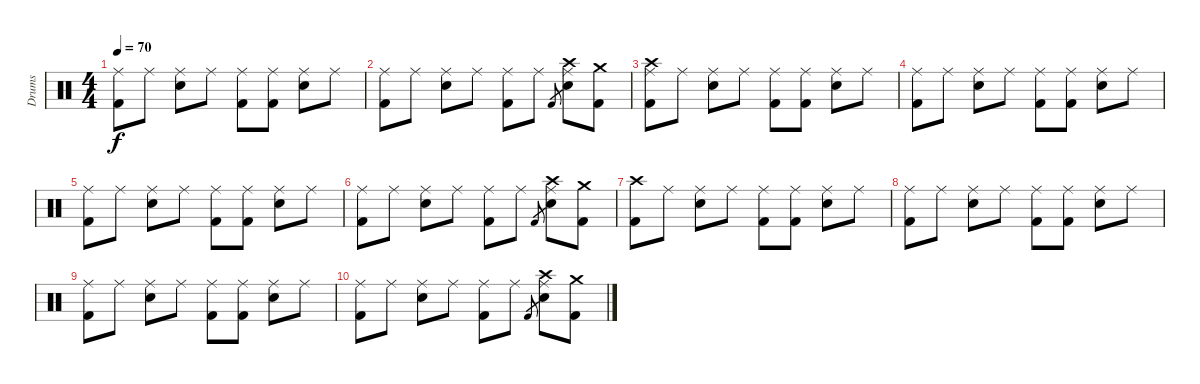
\track ("Drums" "Drums") {instrument percussion}
\staff {score}
\articulation defaults
\ts (4 4)
\tempo 70
\clef neutral
\ks c
("Ride (middle)" "Kick (hit) 2").8{dy f} "Ride (middle)".8 ("Ride (middle)" "Electric Snare (hit)").8 "Ride (middle)".8 ("Ride (middle)" "Kick (hit) 2").8 ("Ride (middle)" "Kick (hit) 2").8 ("Ride (middle)" "Electric Snare (hit)").8 "Ride (middle)".8 |
("Ride (middle)" "Kick (hit) 2").8 "Ride (middle)".8 ("Ride (middle)" "Electric Snare (hit)").8 "Ride (middle)".8 ("Ride (middle)" "Kick (hit) 2").8 "Ride (middle)".8 "Kick (hit) 2".8{gr} ("Crash high (hit)" "Ride (middle)" "Electric Snare (hit)").8 ("Crash medium (hit)" "Kick (hit) 2").8 |
("Crash high (hit)" "Ride (middle)" "Kick (hit) 2").8{volume 13} "Ride (middle)".8 ("Ride (middle)" "Electric Snare (hit)").8 "Ride (middle)".8 ("Ride (middle)" "Kick (hit) 2").8{volume 12} ("Ride (middle)" "Kick (hit) 2").8 ("Ride (middle)" "Electric Snare (hit)").8 "Ride (middle)".8 |
("Ride (middle)" "Kick (hit) 2").8{volume 11} "Ride (middle)".8 ("Ride (middle)" "Electric Snare (hit)").8 "Ride (middle)".8 ("Ride (middle)" "Kick (hit) 2").8{volume 10} ("Ride (middle)" "Kick (hit) 2").8 ("Ride (middle)" "Electric Snare (hit)").8 "Ride (middle)".8 |
("Ride (middle)" "Kick (hit) 2").8{volume 9} "Ride (middle)".8 ("Ride (middle)" "Electric Snare (hit)").8 "Ride (middle)".8 ("Ride (middle)" "Kick (hit) 2").8{volume 8} ("Ride (middle)" "Kick (hit) 2").8 ("Ride (middle)" "Electric Snare (hit)").8 "Ride (middle)".8 |
("Ride (middle)" "Kick (hit) 2").8{volume 7} "Ride (middle)".8 ("Ride (middle)" "Electric Snare (hit)").8 "Ride (middle)".8 ("Ride (middle)" "Kick (hit) 2").8{volume 6} "Ride (middle)".8 "Kick (hit) 2".8{gr} ("Crash high (hit)" "Ride (middle)" "Electric Snare (hit)").8 ("Crash medium (hit)" "Kick (hit) 2").8 |
("Crash high (hit)" "Kick (hit) 2").8{volume 5} "Ride (middle)".8 ("Ride (middle)" "Electric Snare (hit)").8 "Ride (middle)".8 ("Ride (middle)" "Kick (hit) 2").8 ("Ride (middle)" "Kick (hit) 2").8 ("Ride (middle)" "Electric Snare (hit)").8 "Ride (middle)".8 |
("Ride (middle)" "Kick (hit) 2").8{volume 4} "Ride (middle)".8 ("Ride (middle)" "Electric Snare (hit)").8 "Ride (middle)".8 ("Ride (middle)" "Kick (hit) 2").8 ("Ride (middle)" "Kick (hit) 2").8 ("Ride (middle)" "Electric Snare (hit)").8 "Ride (middle)".8 |
("Ride (middle)" "Kick (hit) 2").8{volume 3} "Ride (middle)".8 ("Ride (middle)" "Electric Snare (hit)").8 "Ride (middle)".8 ("Ride (middle)" "Kick (hit) 2").8 ("Ride (middle)" "Kick (hit) 2").8 ("Ride (middle)" "Electric Snare (hit)").8 "Ride (middle)".8 |
("Ride (middle)" "Kick (hit) 2").8{volume 1} "Ride (middle)".8 ("Ride (middle)" "Electric Snare (hit)").8 "Ride (middle)".8 ("Ride (middle)" "Kick (hit) 2").8 "Ride (middle)".8 "Kick (hit) 2".8{gr} ("Crash high (hit)" "Ride (middle)" "Electric Snare (hit)").8 ("Crash medium (hit)" "Kick (hit) 2").8
